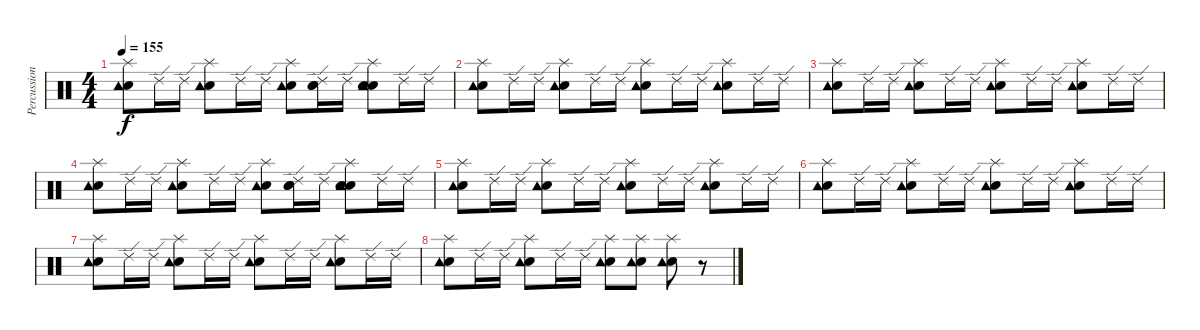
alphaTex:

\track ("Percussions" "Percussion") {instrument percussion}
\staff {score}
\articulation defaults
\ts (4 4)
\tempo 155
\clef neutral
\ks c
("Hand Clap (hit)" "Splash (hit)" "Tambourine (hit)").8{dy f} "Ride (edge) 2".16 "Ride (edge) 2".16 ("Hand Clap (hit)" "Splash (hit)" "Tambourine (hit)").8 "Ride (edge) 2".16 "Ride (edge) 2".16 ("Hand Clap (hit)" "Splash (hit)" "Tambourine (hit)").8 ("Hand Clap (hit)" "Hand Clap (hit)" "Ride (edge) 2").16 "Ride (edge) 2".16 ("Hand Clap (hit)" "Hand Clap (hit)" "Splash (hit)" "Tambourine (hit)").8 "Ride (edge) 2".16 "Ride (edge) 2".16 |
("Hand Clap (hit)" "Splash (hit)" "Tambourine (hit)").8 "Ride (edge) 2".16 "Ride (edge) 2".16 ("Hand Clap (hit)" "Splash (hit)" "Tambourine (hit)").8 "Ride (edge) 2".16 "Ride (edge) 2".16 ("Hand Clap (hit)" "Splash (hit)" "Tambourine (hit)").8 "Ride (edge) 2".16 "Ride (edge) 2".16 ("Hand Clap (hit)" "Splash (hit)" "Tambourine (hit)").8 "Ride (edge) 2".16 "Ride (edge) 2".16 |
("Hand Clap (hit)" "Splash (hit)" "Tambourine (hit)").8 "Ride (edge) 2".16 "Ride (edge) 2".16 ("Hand Clap (hit)" "Splash (hit)" "Tambourine (hit)").8 "Ride (edge) 2".16 "Ride (edge) 2".16 ("Hand Clap (hit)" "Splash (hit)" "Tambourine (hit)").8 "Ride (edge) 2".16 "Ride (edge) 2".16 ("Hand Clap (hit)" "Splash (hit)" "Tambourine (hit)").8 "Ride (edge) 2".16 "Ride (edge) 2".16 |
("Hand Clap (hit)" "Splash (hit)" "Tambourine (hit)").8 "Ride (edge) 2".16 "Ride (edge) 2".16 ("Hand Clap (hit)" "Splash (hit)" "Tambourine (hit)").8 "Ride (edge) 2".16 "Ride (edge) 2".16 ("Hand Clap (hit)" "Splash (hit)" "Tambourine (hit)").8 ("Hand Clap (hit)" "Hand Clap (hit)" "Ride (edge) 2").16 "Ride (edge) 2".16 ("Hand Clap (hit)" "Hand Clap (hit)" "Splash (hit)" "Tambourine (hit)").8 "Ride (edge) 2".16 "Ride (edge) 2".16 |
("Hand Clap (hit)" "Splash (hit)" "Tambourine (hit)").8 "Ride (edge) 2".16 "Ride (edge) 2".16 ("Hand Clap (hit)" "Splash (hit)" "Tambourine (hit)").8 "Ride (edge) 2".16 "Ride (edge) 2".16 ("Hand Clap (hit)" "Splash (hit)" "Tambourine (hit)").8 "Ride (edge) 2".16 "Ride (edge) 2".16 ("Hand Clap (hit)" "Splash (hit)" "Tambourine (hit)").8 "Ride (edge) 2".16 "Ride (edge) 2".16 |
("Hand Clap (hit)" "Splash (hit)" "Tambourine (hit)").8 "Ride (edge) 2".16 "Ride (edge) 2".16 ("Hand Clap (hit)" "Splash (hit)" "Tambourine (hit)").8 "Ride (edge) 2".16 "Ride (edge) 2".16 ("Hand Clap (hit)" "Splash (hit)" "Tambourine (hit)").8 "Ride (edge) 2".16 "Ride (edge) 2".16 ("Hand Clap (hit)" "Splash (hit)" "Tambourine (hit)").8 "Ride (edge) 2".16 "Ride (edge) 2".16 |
("Hand Clap (hit)" "Splash (hit)" "Tambourine (hit)").8 "Ride (edge) 2".16 "Ride (edge) 2".16 ("Hand Clap (hit)" "Splash (hit)" "Tambourine (hit)").8 "Ride (edge) 2".16 "Ride (edge) 2".16 ("Hand Clap (hit)" "Splash (hit)" "Tambourine (hit)").8 "Ride (edge) 2".16 "Ride (edge) 2".16 ("Hand Clap (hit)" "Splash (hit)" "Tambourine (hit)").8 "Ride (edge) 2".16 "Ride (edge) 2".16 |
("Hand Clap (hit)" "Splash (hit)" "Tambourine (hit)").8 "Ride (edge) 2".16 "Ride (edge) 2".16 ("Hand Clap (hit)" "Splash (hit)" "Tambourine (hit)").8 "Ride (edge) 2".16 "Ride (edge) 2".16 ("Hand Clap (hit)" "Splash (hit)" "Tambourine (hit)").8 ("Hand Clap (hit)" "Splash (hit)" "Tambourine (hit)").8 ("Hand Clap (hit)" "Splash (hit)" "Tambourine (hit)").8 r.8
